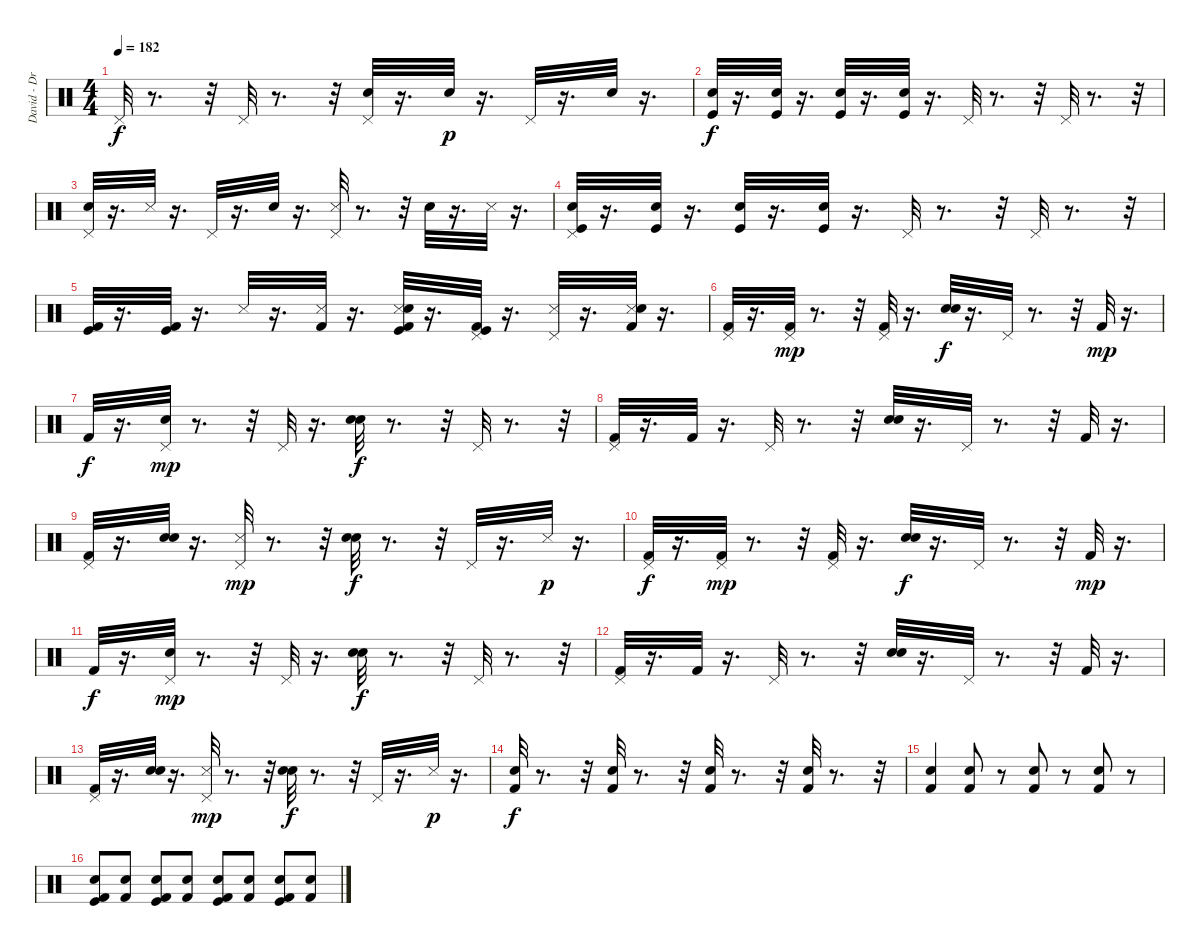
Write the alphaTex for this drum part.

\track ("David - Drums" "David - Dr") {instrument percussion}
\staff {score}
\articulation defaults
\ts (4 4)
\tempo 182
\clef neutral
\ks c "Pedal Hi-Hat (hit)".32{dy f}
r.8{d} r.32 "Pedal Hi-Hat (hit)".32 r.8{d} r.32 ("Snare (hit) 2" "Pedal Hi-Hat (hit)").32 r.16{d} "Hand Clap (hit)".32{dy p} r.16{d} "Pedal Hi-Hat (hit)".32 r.16{d} "Hand Clap (hit)".32 r.16{d} |
("Kick (hit)" "Snare (hit) 2").32{dy f} r.16{d} ("Snare (hit) 2" "Kick (hit)").32 r.16{d} ("Kick (hit)" "Snare (hit) 2").32 r.16{d} ("Snare (hit) 2" "Kick (hit)").32 r.16{d} "Pedal Hi-Hat (hit)".32 r.8{d} r.32 "Pedal Hi-Hat (hit)".32 r.8{d} r.32 |
("Snare (hit) 2" "Pedal Hi-Hat (hit)").32 r.16{d} "Snare (side stick) 3".32 r.16{d} "Pedal Hi-Hat (hit)".32 r.16{d} "Snare (hit) 2".32 r.16{d} ("Snare (side stick) 3" "Pedal Hi-Hat (hit)").32 r.8{d} r.32 "Snare (hit) 2".32 r.16{d} "Snare (side stick) 3".32 r.16{d} |
("Kick (hit)" "Snare (hit) 2" "Pedal Hi-Hat (hit)").32 r.16{d} ("Kick (hit)" "Snare (hit) 2").32 r.16{d} ("Snare (hit) 2" "Kick (hit)").32 r.16{d} ("Snare (hit) 2" "Kick (hit)").32 r.16{d} "Pedal Hi-Hat (hit)".32 r.8{d} r.32 "Pedal Hi-Hat (hit)".32 r.8{d} r.32 |
("Kick (hit) 2" "Kick (hit)").32 r.16{d} ("Kick (hit)" "Kick (hit) 2").32 r.16{d} "Snare (side stick) 3".32 r.16{d} ("Kick (hit) 2" "Snare (side stick) 3").32 r.16{d} ("Snare (side stick) 3" "Snare (hit) 2" "Kick (hit) 2" "Kick (hit)").32 r.16{d} ("Pedal Hi-Hat (hit)" "Kick (hit)" "Kick (hit) 2").32 r.16{d} ("Pedal Hi-Hat (hit)" "Snare (side stick) 3").32 r.16{d} ("Kick (hit) 2" "Snare (side stick) 3" "Snare (hit) 2").32 r.16{d} |
("Pedal Hi-Hat (hit)" "Kick (hit) 2").32 r.16{d} ("Kick (hit) 2" "Pedal Hi-Hat (hit)").32{dy mp} r.8{d} r.32 ("Pedal Hi-Hat (hit)" "Kick (hit) 2").32 r.16{d} ("Snare (hit) 2" "Electric Snare (hit)").32{dy f} r.16{d} "Pedal Hi-Hat (hit)".32 r.8{d} r.32 "Kick (hit) 2".32{dy mp} r.16{d} |
"Kick (hit) 2".32{dy f} r.16{d} ("Pedal Hi-Hat (hit)" "Electric Snare (hit)").32{dy mp} r.8{d} r.32 "Pedal Hi-Hat (hit)".32 r.16{d} ("Snare (hit) 2" "Electric Snare (hit)").32{dy f} r.8{d} r.32 "Pedal Hi-Hat (hit)".32 r.8{d} r.32 |
("Pedal Hi-Hat (hit)" "Kick (hit) 2").32 r.16{d} "Kick (hit) 2".32 r.16{d} "Pedal Hi-Hat (hit)".32 r.8{d} r.32 ("Snare (hit) 2" "Electric Snare (hit)").32 r.16{d} "Pedal Hi-Hat (hit)".32 r.8{d} r.32 "Kick (hit) 2".32 r.16{d} |
("Pedal Hi-Hat (hit)" "Kick (hit) 2").32 r.16{d} ("Snare (hit) 2" "Hand Clap (hit)").32 r.16{d} ("Pedal Hi-Hat (hit)" "Snare (side stick) 3").32{dy mp} r.8{d} r.32 ("Snare (hit) 2" "Electric Snare (hit)").32{dy f} r.8{d} r.32 "Pedal Hi-Hat (hit)".32 r.16{d} "Snare (side stick) 3".32{dy p} r.16{d} |
("Pedal Hi-Hat (hit)" "Kick (hit) 2").32{dy f} r.16{d} ("Kick (hit) 2" "Pedal Hi-Hat (hit)").32{dy mp} r.8{d} r.32 ("Pedal Hi-Hat (hit)" "Kick (hit) 2").32 r.16{d} ("Snare (hit) 2" "Electric Snare (hit)").32{dy f} r.16{d} "Pedal Hi-Hat (hit)".32 r.8{d} r.32 "Kick (hit) 2".32{dy mp} r.16{d} |
"Kick (hit) 2".32{dy f} r.16{d} ("Pedal Hi-Hat (hit)" "Electric Snare (hit)").32{dy mp} r.8{d} r.32 "Pedal Hi-Hat (hit)".32 r.16{d} ("Snare (hit) 2" "Electric Snare (hit)").32{dy f} r.8{d} r.32 "Pedal Hi-Hat (hit)".32 r.8{d} r.32 |
("Pedal Hi-Hat (hit)" "Kick (hit) 2").32 r.16{d} "Kick (hit) 2".32 r.16{d} "Pedal Hi-Hat (hit)".32 r.8{d} r.32 ("Snare (hit) 2" "Electric Snare (hit)").32 r.16{d} "Pedal Hi-Hat (hit)".32 r.8{d} r.32 "Kick (hit) 2".32 r.16{d} |
("Pedal Hi-Hat (hit)" "Kick (hit) 2").32 r.16{d} ("Snare (hit) 2" "Hand Clap (hit)").32 r.16{d} ("Pedal Hi-Hat (hit)" "Snare (side stick) 3").32{dy mp} r.8{d} r.32 ("Snare (hit) 2" "Electric Snare (hit)").32{dy f} r.8{d} r.32 "Pedal Hi-Hat (hit)".32 r.16{d} "Snare (side stick) 3".32{dy p} r.16{d} |
("Kick (hit) 2" "Snare (hit) 2").32{dy f} r.8{d} r.32 ("Kick (hit) 2" "Snare (hit) 2").32 r.8{d} r.32 ("Kick (hit) 2" "Snare (hit) 2").32 r.8{d} r.32 ("Kick (hit) 2" "Snare (hit) 2").32 r.8{d} r.32 |
("Snare (hit) 2" "Kick (hit) 2").4 ("Kick (hit) 2" "Snare (hit) 2").8 r.8 ("Kick (hit) 2" "Snare (hit) 2").8 r.8 ("Kick (hit) 2" "Snare (hit) 2").8 r.8 |
("Kick (hit)" "Kick (hit) 2" "Snare (hit) 2").8 ("Kick (hit) 2" "Snare (hit) 2").8 ("Kick (hit)" "Snare (hit) 2" "Kick (hit) 2").8 ("Snare (hit) 2" "Kick (hit) 2").8 ("Kick (hit)" "Kick (hit) 2" "Snare (hit) 2").8 ("Kick (hit) 2" "Snare (hit) 2").8 ("Kick (hit)" "Snare (hit) 2" "Kick (hit) 2").8 ("Snare (hit) 2" "Kick (hit) 2").8
